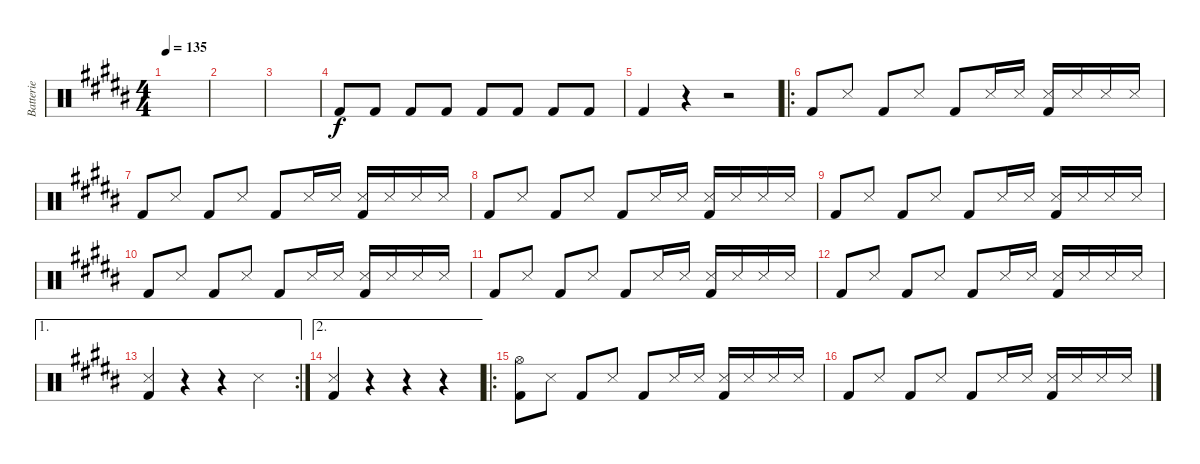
\track ("Batterie" "Batterie") {instrument percussion}
\staff {score}
\articulation defaults
\ts (4 4)
\tempo 135
\clef neutral
\ks b
|
|
|
"Kick (hit) 2".8 "Kick (hit) 2".8 "Kick (hit) 2".8 "Kick (hit) 2".8 "Kick (hit) 2".8 "Kick (hit) 2".8 "Kick (hit) 2".8 "Kick (hit) 2".8 |
"Kick (hit) 2".4 r.4 r.2 |
\ro "Kick (hit) 2".8 "Snare (side stick) 3".8 "Kick (hit) 2".8 "Snare (side stick) 3".8 "Kick (hit) 2".8 "Snare (side stick) 3".16 "Snare (side stick) 3".16
("Snare (side stick) 3" "Kick (hit) 2").16 "Snare (side stick) 3".16 "Snare (side stick) 3".16 "Snare (side stick) 3".16 |
"Kick (hit) 2".8 "Snare (side stick) 3".8 "Kick (hit) 2".8 "Snare (side stick) 3".8 "Kick (hit) 2".8 "Snare (side stick) 3".16 "Snare (side stick) 3".16 ("Snare (side stick) 3" "Kick (hit) 2").16 "Snare (side stick) 3".16 "Snare (side stick) 3".16 "Snare (side stick) 3".16 |
"Kick (hit) 2".8 "Snare (side stick) 3".8 "Kick (hit) 2".8 "Snare (side stick) 3".8 "Kick (hit) 2".8 "Snare (side stick) 3".16 "Snare (side stick) 3".16 ("Snare (side stick) 3" "Kick (hit) 2").16 "Snare (side stick) 3".16 "Snare (side stick) 3".16 "Snare (side stick) 3".16 |
"Kick (hit) 2".8 "Snare (side stick) 3".8 "Kick (hit) 2".8 "Snare (side stick) 3".8 "Kick (hit) 2".8 "Snare (side stick) 3".16 "Snare (side stick) 3".16 ("Snare (side stick) 3" "Kick (hit) 2").16 "Snare (side stick) 3".16 "Snare (side stick) 3".16 "Snare (side stick) 3".16 |
"Kick (hit) 2".8 "Snare (side stick) 3".8 "Kick (hit) 2".8 "Snare (side stick) 3".8 "Kick (hit) 2".8 "Snare (side stick) 3".16 "Snare (side stick) 3".16 ("Snare (side stick) 3" "Kick (hit) 2").16 "Snare (side stick) 3".16 "Snare (side stick) 3".16 "Snare (side stick) 3".16 |
"Kick (hit) 2".8 "Snare (side stick) 3".8 "Kick (hit) 2".8 "Snare (side stick) 3".8 "Kick (hit) 2".8 "Snare (side stick) 3".16 "Snare (side stick) 3".16 ("Snare (side stick) 3" "Kick (hit) 2").16 "Snare (side stick) 3".16 "Snare (side stick) 3".16 "Snare (side stick) 3".16 |
"Kick (hit) 2".8 "Snare (side stick) 3".8 "Kick (hit) 2".8 "Snare (side stick) 3".8 "Kick (hit) 2".8 "Snare (side stick) 3".16 "Snare (side stick) 3".16 ("Snare (side stick) 3" "Kick (hit) 2").16 "Snare (side stick) 3".16 "Snare (side stick) 3".16 "Snare (side stick) 3".16 |
\ae 1
\rc 2
("Snare (side stick) 3" "Kick (hit) 2").4 r.4 r.4 "Snare (side stick) 3".4 |
\ae 2
("Snare (side stick) 3" "Kick (hit) 2").4 r.4 r.4 r.4 |
\ro
("Hi-Hat (open)" "Kick (hit) 2").8 "Snare (side stick) 3".8 "Kick (hit) 2".8 "Snare (side stick) 3".8 "Kick (hit) 2".8 "Snare (side stick) 3".16 "Snare (side stick) 3".16 ("Snare (side stick) 3" "Kick (hit) 2").16 "Snare (side stick) 3".16 "Snare (side stick) 3".16 "Snare (side stick) 3".16 |
"Kick (hit) 2".8 "Snare (side stick) 3".8 "Kick (hit) 2".8 "Snare (side stick) 3".8 "Kick (hit) 2".8 "Snare (side stick) 3".16 "Snare (side stick) 3".16 ("Snare (side stick) 3" "Kick (hit) 2").16 "Snare (side stick) 3".16 "Snare (side stick) 3".16 "Snare (side stick) 3".16
